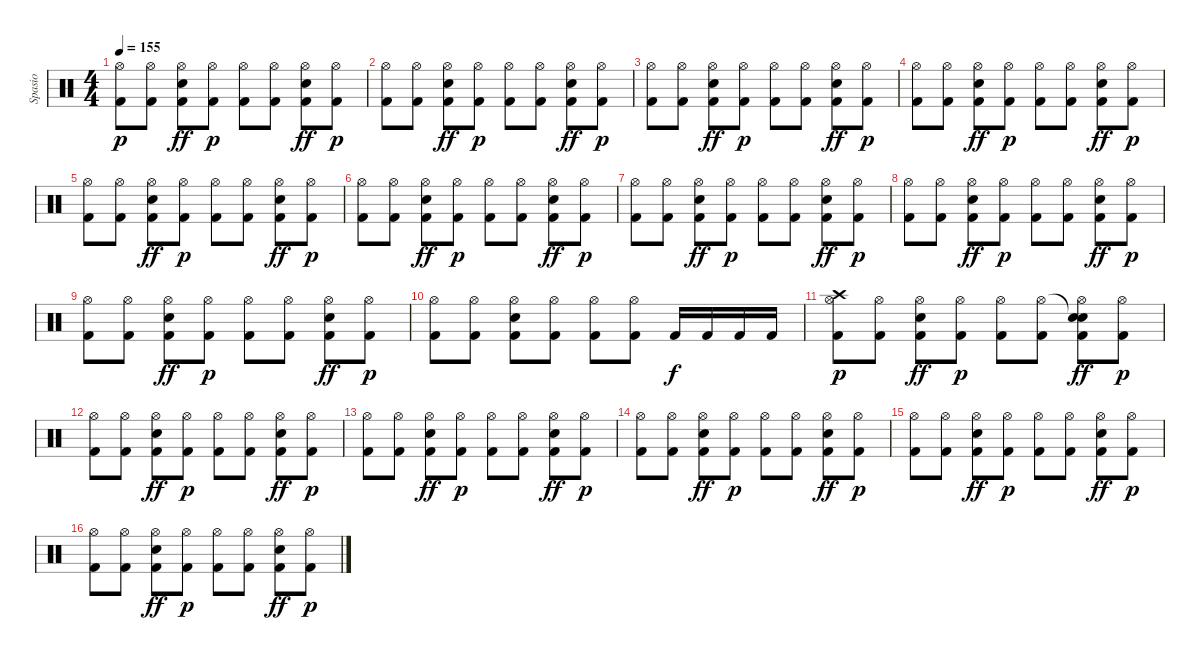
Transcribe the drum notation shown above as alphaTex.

\track ("Spasio" "Spasio") {instrument percussion}
\staff {score}
\articulation defaults
\ts (4 4)
\tempo 155
\clef neutral
\ks c
("Hi-Hat (open)" "Kick (hit) 2").8{dy p} ("Hi-Hat (open)" "Kick (hit) 2").8 ("Hi-Hat (open)" "Electric Snare (hit)" "Kick (hit) 2").8{dy ff} ("Hi-Hat (open)" "Kick (hit) 2").8{dy p} ("Hi-Hat (open)" "Kick (hit) 2").8 ("Hi-Hat (open)" "Kick (hit) 2").8 ("Hi-Hat (open)" "Electric Snare (hit)" "Kick (hit) 2").8{dy ff} ("Hi-Hat (open)" "Kick (hit) 2").8{dy p} |
("Hi-Hat (open)" "Kick (hit) 2").8 ("Hi-Hat (open)" "Kick (hit) 2").8 ("Hi-Hat (open)" "Electric Snare (hit)" "Kick (hit) 2").8{dy ff} ("Hi-Hat (open)" "Kick (hit) 2").8{dy p} ("Hi-Hat (open)" "Kick (hit) 2").8 ("Hi-Hat (open)" "Kick (hit) 2").8 ("Hi-Hat (open)" "Electric Snare (hit)" "Kick (hit) 2").8{dy ff} ("Hi-Hat (open)" "Kick (hit) 2").8{dy p} |
("Hi-Hat (open)" "Kick (hit) 2").8 ("Hi-Hat (open)" "Kick (hit) 2").8 ("Hi-Hat (open)" "Electric Snare (hit)" "Kick (hit) 2").8{dy ff} ("Hi-Hat (open)" "Kick (hit) 2").8{dy p} ("Hi-Hat (open)" "Kick (hit) 2").8 ("Hi-Hat (open)" "Kick (hit) 2").8 ("Hi-Hat (open)" "Electric Snare (hit)" "Kick (hit) 2").8{dy ff} ("Hi-Hat (open)" "Kick (hit) 2").8{dy p} |
("Hi-Hat (open)" "Kick (hit) 2").8 ("Hi-Hat (open)" "Kick (hit) 2").8 ("Hi-Hat (open)" "Electric Snare (hit)" "Kick (hit) 2").8{dy ff} ("Hi-Hat (open)" "Kick (hit) 2").8{dy p} ("Hi-Hat (open)" "Kick (hit) 2").8 ("Hi-Hat (open)" "Kick (hit) 2").8 ("Hi-Hat (open)" "Electric Snare (hit)" "Kick (hit) 2").8{dy ff} ("Hi-Hat (open)" "Kick (hit) 2").8{dy p} |
("Hi-Hat (open)" "Kick (hit) 2").8 ("Hi-Hat (open)" "Kick (hit) 2").8 ("Hi-Hat (open)" "Electric Snare (hit)" "Kick (hit) 2").8{dy ff} ("Hi-Hat (open)" "Kick (hit) 2").8{dy p} ("Hi-Hat (open)" "Kick (hit) 2").8 ("Hi-Hat (open)" "Kick (hit) 2").8 ("Hi-Hat (open)" "Electric Snare (hit)" "Kick (hit) 2").8{dy ff} ("Hi-Hat (open)" "Kick (hit) 2").8{dy p} |
("Hi-Hat (open)" "Kick (hit) 2").8 ("Hi-Hat (open)" "Kick (hit) 2").8 ("Hi-Hat (open)" "Electric Snare (hit)" "Kick (hit) 2").8{dy ff} ("Hi-Hat (open)" "Kick (hit) 2").8{dy p} ("Hi-Hat (open)" "Kick (hit) 2").8 ("Hi-Hat (open)" "Kick (hit) 2").8 ("Hi-Hat (open)" "Electric Snare (hit)" "Kick (hit) 2").8{dy ff} ("Hi-Hat (open)" "Kick (hit) 2").8{dy p} |
("Hi-Hat (open)" "Kick (hit) 2").8 ("Hi-Hat (open)" "Kick (hit) 2").8 ("Hi-Hat (open)" "Electric Snare (hit)" "Kick (hit) 2").8{dy ff} ("Hi-Hat (open)" "Kick (hit) 2").8{dy p} ("Hi-Hat (open)" "Kick (hit) 2").8 ("Hi-Hat (open)" "Kick (hit) 2").8 ("Hi-Hat (open)" "Electric Snare (hit)" "Kick (hit) 2").8{dy ff} ("Hi-Hat (open)" "Kick (hit) 2").8{dy p} |
("Hi-Hat (open)" "Kick (hit) 2").8 ("Hi-Hat (open)" "Kick (hit) 2").8 ("Hi-Hat (open)" "Electric Snare (hit)" "Kick (hit) 2").8{dy ff} ("Hi-Hat (open)" "Kick (hit) 2").8{dy p} ("Hi-Hat (open)" "Kick (hit) 2").8 ("Hi-Hat (open)" "Kick (hit) 2").8 ("Hi-Hat (open)" "Electric Snare (hit)" "Kick (hit) 2").8{dy ff} ("Hi-Hat (open)" "Kick (hit) 2").8{dy p} |
("Hi-Hat (open)" "Kick (hit) 2").8 ("Hi-Hat (open)" "Kick (hit) 2").8 ("Hi-Hat (open)" "Electric Snare (hit)" "Kick (hit) 2").8{dy ff} ("Hi-Hat (open)" "Kick (hit) 2").8{dy p} ("Hi-Hat (open)" "Kick (hit) 2").8 ("Hi-Hat (open)" "Kick (hit) 2").8 ("Hi-Hat (open)" "Electric Snare (hit)" "Kick (hit) 2").8{dy ff} ("Hi-Hat (open)" "Kick (hit) 2").8{dy p} |
("Hi-Hat (open)" "Kick (hit) 2").8 ("Hi-Hat (open)" "Kick (hit) 2").8 ("Hi-Hat (open)" "Electric Snare (hit)" "Kick (hit) 2").8 ("Hi-Hat (open)" "Kick (hit) 2").8 ("Hi-Hat (open)" "Kick (hit) 2").8 ("Hi-Hat (open)" "Kick (hit) 2").8 "Kick (hit) 2".16{dy f} "Kick (hit) 2".16 "Kick (hit) 2".16 "Kick (hit) 2".16 |
("Crash high (hit)" "Hi-Hat (open)" "Kick (hit) 2").8{dy p} ("Hi-Hat (open)" "Kick (hit) 2").8 ("Hi-Hat (open)" "Electric Snare (hit)" "Kick (hit) 2").8{dy ff} ("Hi-Hat (open)" "Kick (hit) 2").8{dy p} ("Hi-Hat (open)" "Kick (hit) 2").8 ("Hi-Hat (open)" "Kick (hit) 2").8 ("Snare (hit)"{t} "Hi-Hat (open)" "Electric Snare (hit)" "Kick (hit) 2").8{dy ff} ("Hi-Hat (open)" "Kick (hit) 2").8{dy p} |
("Hi-Hat (open)" "Kick (hit) 2").8 ("Hi-Hat (open)" "Kick (hit) 2").8 ("Hi-Hat (open)" "Electric Snare (hit)" "Kick (hit) 2").8{dy ff} ("Hi-Hat (open)" "Kick (hit) 2").8{dy p} ("Hi-Hat (open)" "Kick (hit) 2").8 ("Hi-Hat (open)" "Kick (hit) 2").8 ("Hi-Hat (open)" "Electric Snare (hit)" "Kick (hit) 2").8{dy ff} ("Hi-Hat (open)" "Kick (hit) 2").8{dy p} |
("Hi-Hat (open)" "Kick (hit) 2").8 ("Hi-Hat (open)" "Kick (hit) 2").8 ("Hi-Hat (open)" "Electric Snare (hit)" "Kick (hit) 2").8{dy ff} ("Hi-Hat (open)" "Kick (hit) 2").8{dy p} ("Hi-Hat (open)" "Kick (hit) 2").8 ("Hi-Hat (open)" "Kick (hit) 2").8 ("Hi-Hat (open)" "Electric Snare (hit)" "Kick (hit) 2").8{dy ff} ("Hi-Hat (open)" "Kick (hit) 2").8{dy p} |
("Hi-Hat (open)" "Kick (hit) 2").8 ("Hi-Hat (open)" "Kick (hit) 2").8 ("Hi-Hat (open)" "Electric Snare (hit)" "Kick (hit) 2").8{dy ff} ("Hi-Hat (open)" "Kick (hit) 2").8{dy p} ("Hi-Hat (open)" "Kick (hit) 2").8 ("Hi-Hat (open)" "Kick (hit) 2").8 ("Hi-Hat (open)" "Electric Snare (hit)" "Kick (hit) 2").8{dy ff} ("Hi-Hat (open)" "Kick (hit) 2").8{dy p} |
("Hi-Hat (open)" "Kick (hit) 2").8 ("Hi-Hat (open)" "Kick (hit) 2").8 ("Hi-Hat (open)" "Electric Snare (hit)" "Kick (hit) 2").8{dy ff} ("Hi-Hat (open)" "Kick (hit) 2").8{dy p} ("Hi-Hat (open)" "Kick (hit) 2").8 ("Hi-Hat (open)" "Kick (hit) 2").8 ("Hi-Hat (open)" "Electric Snare (hit)" "Kick (hit) 2").8{dy ff} ("Hi-Hat (open)" "Kick (hit) 2").8{dy p} |
("Hi-Hat (open)" "Kick (hit) 2").8 ("Hi-Hat (open)" "Kick (hit) 2").8 ("Hi-Hat (open)" "Electric Snare (hit)" "Kick (hit) 2").8{dy ff} ("Hi-Hat (open)" "Kick (hit) 2").8{dy p} ("Hi-Hat (open)" "Kick (hit) 2").8 ("Hi-Hat (open)" "Kick (hit) 2").8 ("Hi-Hat (open)" "Electric Snare (hit)" "Kick (hit) 2").8{dy ff} ("Hi-Hat (open)" "Kick (hit) 2").8{dy p}
